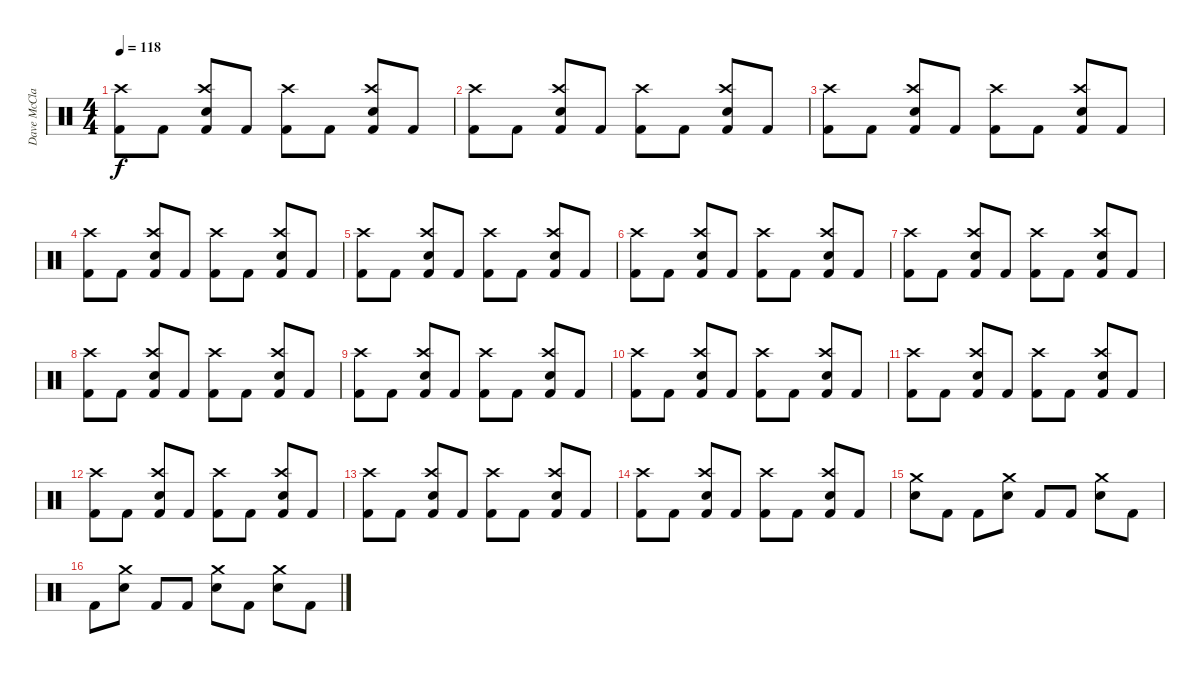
\track ("Dave McClain" "Dave McCla") {instrument percussion}
\staff {score}
\articulation defaults
\ts (4 4)
\tempo 118
\clef neutral
\ks c
("Kick (hit) 2" "Crash high (hit)").8{dy f} "Kick (hit) 2".8 ("Kick (hit) 2" "Snare (hit) 2" "Crash high (hit)").8 "Kick (hit) 2".8 ("Kick (hit) 2" "Crash high (hit)").8 "Kick (hit) 2".8 ("Kick (hit) 2" "Snare (hit) 2" "Crash high (hit)").8 "Kick (hit) 2".8 |
("Kick (hit) 2" "Crash high (hit)").8 "Kick (hit) 2".8 ("Kick (hit) 2" "Snare (hit) 2" "Crash high (hit)").8 "Kick (hit) 2".8 ("Kick (hit) 2" "Crash high (hit)").8 "Kick (hit) 2".8 ("Kick (hit) 2" "Snare (hit) 2" "Crash high (hit)").8 "Kick (hit) 2".8 |
("Kick (hit) 2" "Crash high (hit)").8 "Kick (hit) 2".8 ("Kick (hit) 2" "Snare (hit) 2" "Crash high (hit)").8 "Kick (hit) 2".8 ("Kick (hit) 2" "Crash high (hit)").8 "Kick (hit) 2".8 ("Kick (hit) 2" "Snare (hit) 2" "Crash high (hit)").8 "Kick (hit) 2".8 |
("Kick (hit) 2" "Crash high (hit)").8 "Kick (hit) 2".8 ("Kick (hit) 2" "Snare (hit) 2" "Crash high (hit)").8 "Kick (hit) 2".8 ("Kick (hit) 2" "Crash high (hit)").8 "Kick (hit) 2".8 ("Kick (hit) 2" "Snare (hit) 2" "Crash high (hit)").8 "Kick (hit) 2".8 |
("Kick (hit) 2" "Crash high (hit)").8 "Kick (hit) 2".8 ("Kick (hit) 2" "Snare (hit) 2" "Crash high (hit)").8 "Kick (hit) 2".8 ("Kick (hit) 2" "Crash high (hit)").8 "Kick (hit) 2".8 ("Kick (hit) 2" "Snare (hit) 2" "Crash high (hit)").8 "Kick (hit) 2".8 |
("Kick (hit) 2" "Crash high (hit)").8 "Kick (hit) 2".8 ("Kick (hit) 2" "Snare (hit) 2" "Crash high (hit)").8 "Kick (hit) 2".8 ("Kick (hit) 2" "Crash high (hit)").8 "Kick (hit) 2".8 ("Kick (hit) 2" "Snare (hit) 2" "Crash high (hit)").8 "Kick (hit) 2".8 |
("Kick (hit) 2" "Crash high (hit)").8 "Kick (hit) 2".8 ("Kick (hit) 2" "Snare (hit) 2" "Crash high (hit)").8 "Kick (hit) 2".8 ("Kick (hit) 2" "Crash high (hit)").8 "Kick (hit) 2".8 ("Kick (hit) 2" "Snare (hit) 2" "Crash high (hit)").8 "Kick (hit) 2".8 |
("Kick (hit) 2" "Crash high (hit)").8 "Kick (hit) 2".8 ("Kick (hit) 2" "Snare (hit) 2" "Crash high (hit)").8 "Kick (hit) 2".8 ("Kick (hit) 2" "Crash high (hit)").8 "Kick (hit) 2".8 ("Kick (hit) 2" "Snare (hit) 2" "Crash high (hit)").8 "Kick (hit) 2".8 |
("Kick (hit) 2" "Crash high (hit)").8 "Kick (hit) 2".8 ("Kick (hit) 2" "Snare (hit) 2" "Crash high (hit)").8 "Kick (hit) 2".8 ("Kick (hit) 2" "Crash high (hit)").8 "Kick (hit) 2".8 ("Kick (hit) 2" "Snare (hit) 2" "Crash high (hit)").8 "Kick (hit) 2".8 |
("Kick (hit) 2" "Crash high (hit)").8 "Kick (hit) 2".8 ("Kick (hit) 2" "Snare (hit) 2" "Crash high (hit)").8 "Kick (hit) 2".8 ("Kick (hit) 2" "Crash high (hit)").8 "Kick (hit) 2".8 ("Kick (hit) 2" "Snare (hit) 2" "Crash high (hit)").8 "Kick (hit) 2".8 |
("Kick (hit) 2" "Crash high (hit)").8 "Kick (hit) 2".8 ("Kick (hit) 2" "Snare (hit) 2" "Crash high (hit)").8 "Kick (hit) 2".8 ("Kick (hit) 2" "Crash high (hit)").8 "Kick (hit) 2".8 ("Kick (hit) 2" "Snare (hit) 2" "Crash high (hit)").8 "Kick (hit) 2".8 |
("Kick (hit) 2" "Crash high (hit)").8 "Kick (hit) 2".8 ("Kick (hit) 2" "Snare (hit) 2" "Crash high (hit)").8 "Kick (hit) 2".8 ("Kick (hit) 2" "Crash high (hit)").8 "Kick (hit) 2".8 ("Kick (hit) 2" "Snare (hit) 2" "Crash high (hit)").8 "Kick (hit) 2".8 |
("Kick (hit) 2" "Crash high (hit)").8 "Kick (hit) 2".8 ("Kick (hit) 2" "Snare (hit) 2" "Crash high (hit)").8 "Kick (hit) 2".8 ("Kick (hit) 2" "Crash high (hit)").8 "Kick (hit) 2".8 ("Kick (hit) 2" "Snare (hit) 2" "Crash high (hit)").8 "Kick (hit) 2".8 |
("Kick (hit) 2" "Crash high (hit)").8 "Kick (hit) 2".8 ("Kick (hit) 2" "Snare (hit) 2" "Crash high (hit)").8 "Kick (hit) 2".8 ("Kick (hit) 2" "Crash high (hit)").8 "Kick (hit) 2".8 ("Kick (hit) 2" "Snare (hit) 2" "Crash high (hit)").8 "Kick (hit) 2".8 |
("Snare (hit) 2" "Crash medium (hit)").8 "Kick (hit) 2".8 "Kick (hit) 2".8 ("Snare (hit) 2" "Crash medium (hit)").8 "Kick (hit) 2".8 "Kick (hit) 2".8 ("Snare (hit) 2" "Crash medium (hit)").8 "Kick (hit) 2".8 |
"Kick (hit) 2".8 ("Snare (hit) 2" "Crash medium (hit)").8 "Kick (hit) 2".8 "Kick (hit) 2".8 ("Snare (hit) 2" "Crash medium (hit)").8 "Kick (hit) 2".8 ("Snare (hit) 2" "Crash medium (hit)").8 "Kick (hit) 2".8
